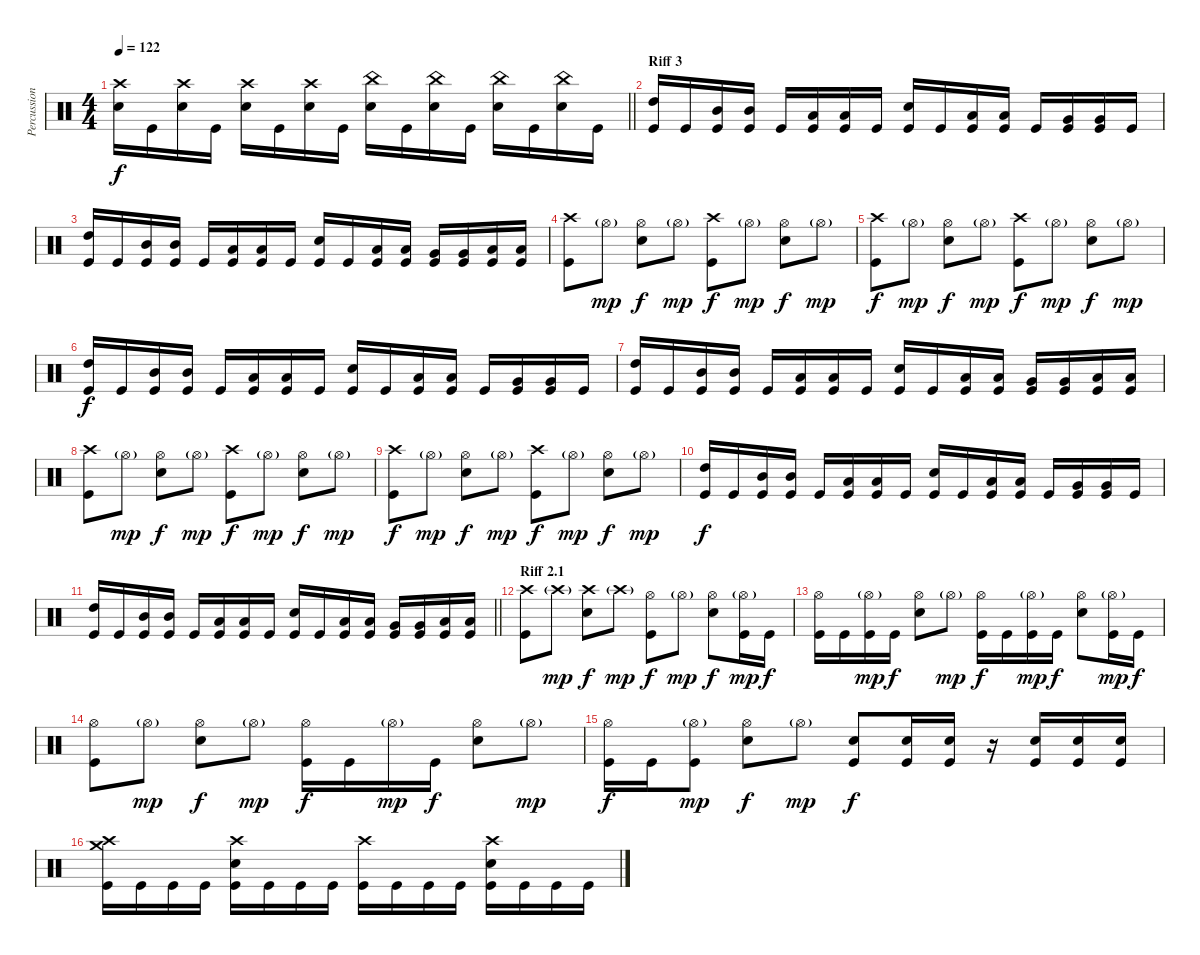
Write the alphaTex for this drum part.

\track ("Percussion" "Percussion") {instrument percussion}
\staff {score}
\articulation defaults
\ts (4 4)
\tempo 122
\clef neutral
\barLineRight lightlight
\ks c
("Crash high (hit)" "Snare (hit) 2").16{dy f} "Kick (hit)".16 ("Crash high (hit)" "Snare (hit) 2").16 "Kick (hit)".16 ("Crash high (hit)" "Snare (hit) 2").16 "Kick (hit)".16 ("Crash high (hit)" "Snare (hit) 2").16 "Kick (hit)".16 ("China (hit)" "Snare (hit) 2").16 "Kick (hit)".16 ("China (hit)" "Snare (hit) 2").16 "Kick (hit)".16 ("China (hit)" "Snare (hit) 2").16 "Kick (hit)".16 ("China (hit)" "Snare (hit) 2").16 "Kick (hit)".16 |
\section ("" "Riff 3")
("High Tom (hit)" "Kick (hit)").16 "Kick (hit)".16 ("Mid Tom (hit)" "Kick (hit)").16 ("Mid Tom (hit)" "Kick (hit)").16 "Kick (hit)".16 ("Low Tom (hit)" "Kick (hit)").16 ("Low Tom (hit)" "Kick (hit)").16 "Kick (hit)".16 ("Snare (hit) 2" "Kick (hit)").16 "Kick (hit)".16 ("Low Tom (hit)" "Kick (hit)").16 ("Low Tom (hit)" "Kick (hit)").16 "Kick (hit)".16 ("Very Low Tom (hit)" "Kick (hit)").16 ("Very Low Tom (hit)" "Kick (hit)").16 "Kick (hit)".16 |
("High Tom (hit)" "Kick (hit)").16 "Kick (hit)".16 ("Mid Tom (hit)" "Kick (hit)").16 ("Mid Tom (hit)" "Kick (hit)").16 "Kick (hit)".16 ("Low Tom (hit)" "Kick (hit)").16 ("Low Tom (hit)" "Kick (hit)").16 "Kick (hit)".16 ("Snare (hit) 2" "Kick (hit)").16 "Kick (hit)".16 ("Low Tom (hit)" "Kick (hit)").16 ("Low Tom (hit)" "Kick (hit)").16 ("Very Low Tom (hit)" "Kick (hit)").16 ("Very Low Tom (hit)" "Kick (hit)").16 ("Low Floor Tom (hit)" "Kick (hit)").16 ("Low Floor Tom (hit)" "Kick (hit)").16 |
("Crash high (hit)" "Kick (hit)").8 "Hi-Hat (open)"{g}.8{dy mp} ("Hi-Hat (open)" "Snare (hit) 2").8{dy f} "Hi-Hat (open)"{g}.8{dy mp} ("Crash high (hit)" "Kick (hit)").8{dy f} "Hi-Hat (open)"{g}.8{dy mp} ("Hi-Hat (open)" "Snare (hit) 2").8{dy f} "Hi-Hat (open)"{g}.8{dy mp} |
("Crash high (hit)" "Kick (hit)").8{dy f} "Hi-Hat (open)"{g}.8{dy mp} ("Hi-Hat (open)" "Snare (hit) 2").8{dy f} "Hi-Hat (open)"{g}.8{dy mp} ("Crash high (hit)" "Kick (hit)").8{dy f} "Hi-Hat (open)"{g}.8{dy mp} ("Hi-Hat (open)" "Snare (hit) 2").8{dy f} "Hi-Hat (open)"{g}.8{dy mp} |
("High Tom (hit)" "Kick (hit)").16{dy f} "Kick (hit)".16 ("Mid Tom (hit)" "Kick (hit)").16 ("Mid Tom (hit)" "Kick (hit)").16 "Kick (hit)".16 ("Low Tom (hit)" "Kick (hit)").16 ("Low Tom (hit)" "Kick (hit)").16 "Kick (hit)".16 ("Snare (hit) 2" "Kick (hit)").16 "Kick (hit)".16 ("Low Tom (hit)" "Kick (hit)").16 ("Low Tom (hit)" "Kick (hit)").16 "Kick (hit)".16 ("Very Low Tom (hit)" "Kick (hit)").16 ("Very Low Tom (hit)" "Kick (hit)").16 "Kick (hit)".16 |
("High Tom (hit)" "Kick (hit)").16 "Kick (hit)".16 ("Mid Tom (hit)" "Kick (hit)").16 ("Mid Tom (hit)" "Kick (hit)").16 "Kick (hit)".16 ("Low Tom (hit)" "Kick (hit)").16 ("Low Tom (hit)" "Kick (hit)").16 "Kick (hit)".16 ("Snare (hit) 2" "Kick (hit)").16 "Kick (hit)".16 ("Low Tom (hit)" "Kick (hit)").16 ("Low Tom (hit)" "Kick (hit)").16 ("Very Low Tom (hit)" "Kick (hit)").16 ("Very Low Tom (hit)" "Kick (hit)").16 ("Low Floor Tom (hit)" "Kick (hit)").16 ("Low Floor Tom (hit)" "Kick (hit)").16 |
("Crash high (hit)" "Kick (hit)").8 "Hi-Hat (open)"{g}.8{dy mp} ("Hi-Hat (open)" "Snare (hit) 2").8{dy f} "Hi-Hat (open)"{g}.8{dy mp} ("Crash high (hit)" "Kick (hit)").8{dy f} "Hi-Hat (open)"{g}.8{dy mp} ("Hi-Hat (open)" "Snare (hit) 2").8{dy f} "Hi-Hat (open)"{g}.8{dy mp} |
("Crash high (hit)" "Kick (hit)").8{dy f} "Hi-Hat (open)"{g}.8{dy mp} ("Hi-Hat (open)" "Snare (hit) 2").8{dy f} "Hi-Hat (open)"{g}.8{dy mp} ("Crash high (hit)" "Kick (hit)").8{dy f} "Hi-Hat (open)"{g}.8{dy mp} ("Hi-Hat (open)" "Snare (hit) 2").8{dy f} "Hi-Hat (open)"{g}.8{dy mp} |
("High Tom (hit)" "Kick (hit)").16{dy f} "Kick (hit)".16 ("Mid Tom (hit)" "Kick (hit)").16 ("Mid Tom (hit)" "Kick (hit)").16 "Kick (hit)".16 ("Low Tom (hit)" "Kick (hit)").16 ("Low Tom (hit)" "Kick (hit)").16 "Kick (hit)".16 ("Snare (hit) 2" "Kick (hit)").16 "Kick (hit)".16 ("Low Tom (hit)" "Kick (hit)").16 ("Low Tom (hit)" "Kick (hit)").16 "Kick (hit)".16 ("Very Low Tom (hit)" "Kick (hit)").16 ("Very Low Tom (hit)" "Kick (hit)").16 "Kick (hit)".16 |
\barLineRight lightlight
("High Tom (hit)" "Kick (hit)").16 "Kick (hit)".16 ("Mid Tom (hit)" "Kick (hit)").16 ("Mid Tom (hit)" "Kick (hit)").16 "Kick (hit)".16 ("Low Tom (hit)" "Kick (hit)").16 ("Low Tom (hit)" "Kick (hit)").16 "Kick (hit)".16 ("Snare (hit) 2" "Kick (hit)").16 "Kick (hit)".16 ("Low Tom (hit)" "Kick (hit)").16 ("Low Tom (hit)" "Kick (hit)").16 ("Very Low Tom (hit)" "Kick (hit)").16 ("Very Low Tom (hit)" "Kick (hit)").16 ("Low Floor Tom (hit)" "Kick (hit)").16 ("Low Floor Tom (hit)" "Kick (hit)").16 |
\section ("" "Riff 2.1")
("Crash high (hit)" "Kick (hit)").8 "Crash high (hit)"{g}.8{dy mp} ("Crash high (hit)" "Snare (hit) 2").8{dy f} "Crash high (hit)"{g}.8{dy mp} ("Hi-Hat (open)" "Kick (hit)").8{dy f} "Hi-Hat (open)"{g}.8{dy mp} ("Hi-Hat (open)" "Snare (hit) 2").8{dy f} ("Kick (hit)" "Hi-Hat (open)"{g}).16{dy mp} "Kick (hit)".16{dy f} |
("Hi-Hat (open)" "Kick (hit)").16 "Kick (hit)".16 ("Hi-Hat (open)"{g} "Kick (hit)").16{dy mp} "Kick (hit)".16{dy f} ("Hi-Hat (open)" "Snare (hit) 2").8 "Hi-Hat (open)"{g}.8{dy mp} ("Hi-Hat (open)" "Kick (hit)").16{dy f} "Kick (hit)".16 ("Hi-Hat (open)"{g} "Kick (hit)").16{dy mp} "Kick (hit)".16{dy f} ("Snare (hit) 2" "Hi-Hat (open)").8 ("Hi-Hat (open)"{g} "Kick (hit)").16{dy mp} "Kick (hit)".16{dy f} |
("Hi-Hat (open)" "Kick (hit)").8 "Hi-Hat (open)"{g}.8{dy mp} ("Hi-Hat (open)" "Snare (hit) 2").8{dy f} "Hi-Hat (open)"{g}.8{dy mp} ("Hi-Hat (open)" "Kick (hit)").16{dy f} "Kick (hit)".16 "Hi-Hat (open)"{g}.16{dy mp} "Kick (hit)".16{dy f} ("Hi-Hat (open)" "Snare (hit) 2").8 "Hi-Hat (open)"{g}.8{dy mp} |
("Hi-Hat (open)" "Kick (hit)").16{dy f} "Kick (hit)".16 ("Hi-Hat (open)"{g} "Kick (hit)").8{dy mp} ("Hi-Hat (open)" "Snare (hit) 2").8{dy f} "Hi-Hat (open)"{g}.8{dy mp} ("Snare (hit) 2" "Kick (hit)").8{dy f} ("Kick (hit)" "Snare (hit) 2").16 ("Kick (hit)" "Snare (hit) 2").16 r.16 ("Kick (hit)" "Snare (hit) 2").16 ("Kick (hit)" "Snare (hit) 2").16 ("Kick (hit)" "Snare (hit) 2").16 |
("Crash medium (hit)" "Crash high (hit)" "Kick (hit)").16 "Kick (hit)".16 "Kick (hit)".16 "Kick (hit)".16 ("Crash high (hit)" "Snare (hit) 2" "Kick (hit)").16 "Kick (hit)".16 "Kick (hit)".16 "Kick (hit)".16 ("Crash high (hit)" "Kick (hit)").16 "Kick (hit)".16 "Kick (hit)".16 "Kick (hit)".16 ("Crash high (hit)" "Snare (hit) 2" "Kick (hit)").16 "Kick (hit)".16 "Kick (hit)".16 "Kick (hit)".16
